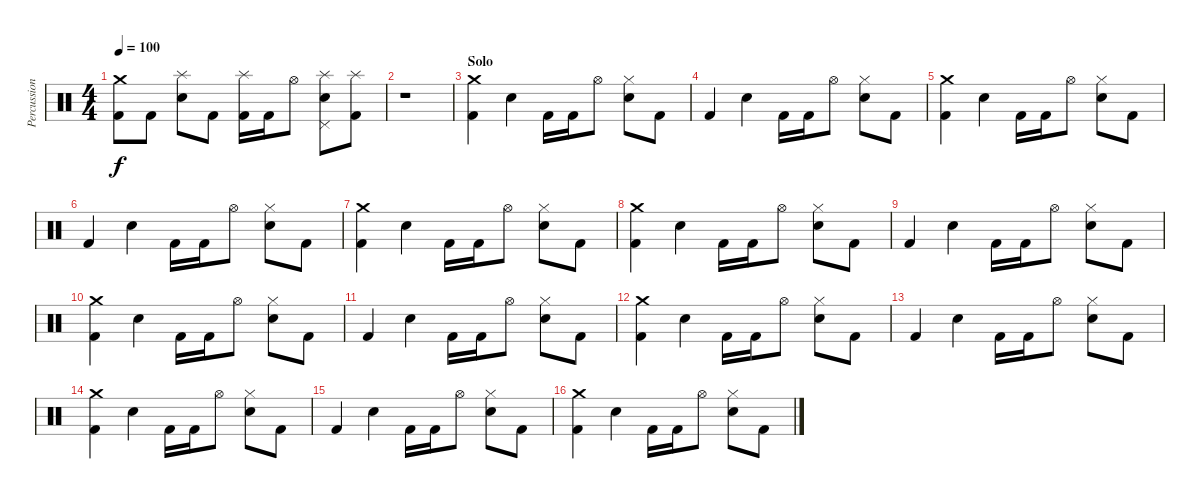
\track ("Percussions" "Percussion") {instrument percussion}
\staff {score}
\articulation defaults
\ts (4 4)
\tempo 100
\clef neutral
\ks c
("Crash medium (hit)" "Kick (hit) 2").8{dy f} "Kick (hit) 2".8 ("Splash (hit)" "Snare (hit) 2").8 "Kick (hit) 2".8 ("Splash (hit)" "Kick (hit) 2").16 "Kick (hit) 2".16 "Hi-Hat (open)".8 ("Splash (hit)" "Pedal Hi-Hat (hit)" "Snare (hit) 2").8 ("Splash (hit)" "Kick (hit) 2").8 |
r.1 |
\section ("" "Solo")
("Crash medium (hit)" "Kick (hit) 2").4 "Snare (hit) 2".4 "Kick (hit) 2".16 "Kick (hit) 2".16 "Hi-Hat (open)".8 ("Hi-Hat (closed)" "Snare (hit) 2").8 "Kick (hit) 2".8 |
"Kick (hit) 2".4 "Snare (hit) 2".4 "Kick (hit) 2".16 "Kick (hit) 2".16 "Hi-Hat (open)".8 ("Hi-Hat (closed)" "Snare (hit) 2").8 "Kick (hit) 2".8 |
("Crash medium (hit)" "Kick (hit) 2").4 "Snare (hit) 2".4 "Kick (hit) 2".16 "Kick (hit) 2".16 "Hi-Hat (open)".8 ("Hi-Hat (closed)" "Snare (hit) 2").8 "Kick (hit) 2".8 |
"Kick (hit) 2".4 "Snare (hit) 2".4 "Kick (hit) 2".16 "Kick (hit) 2".16 "Hi-Hat (open)".8 ("Hi-Hat (closed)" "Snare (hit) 2").8 "Kick (hit) 2".8 |
("Crash medium (hit)" "Kick (hit) 2").4 "Snare (hit) 2".4 "Kick (hit) 2".16 "Kick (hit) 2".16 "Hi-Hat (open)".8 ("Hi-Hat (closed)" "Snare (hit) 2").8 "Kick (hit) 2".8 |
("Crash medium (hit)" "Kick (hit) 2").4 "Snare (hit) 2".4 "Kick (hit) 2".16 "Kick (hit) 2".16 "Hi-Hat (open)".8 ("Hi-Hat (closed)" "Snare (hit) 2").8 "Kick (hit) 2".8 |
"Kick (hit) 2".4 "Snare (hit) 2".4 "Kick (hit) 2".16 "Kick (hit) 2".16 "Hi-Hat (open)".8 ("Hi-Hat (closed)" "Snare (hit) 2").8 "Kick (hit) 2".8 |
("Crash medium (hit)" "Kick (hit) 2").4 "Snare (hit) 2".4 "Kick (hit) 2".16 "Kick (hit) 2".16 "Hi-Hat (open)".8 ("Hi-Hat (closed)" "Snare (hit) 2").8 "Kick (hit) 2".8 |
"Kick (hit) 2".4 "Snare (hit) 2".4 "Kick (hit) 2".16 "Kick (hit) 2".16 "Hi-Hat (open)".8 ("Hi-Hat (closed)" "Snare (hit) 2").8 "Kick (hit) 2".8 |
("Crash medium (hit)" "Kick (hit) 2").4 "Snare (hit) 2".4 "Kick (hit) 2".16 "Kick (hit) 2".16 "Hi-Hat (open)".8 ("Hi-Hat (closed)" "Snare (hit) 2").8 "Kick (hit) 2".8 |
"Kick (hit) 2".4 "Snare (hit) 2".4 "Kick (hit) 2".16 "Kick (hit) 2".16 "Hi-Hat (open)".8 ("Hi-Hat (closed)" "Snare (hit) 2").8 "Kick (hit) 2".8 |
("Crash medium (hit)" "Kick (hit) 2").4 "Snare (hit) 2".4 "Kick (hit) 2".16 "Kick (hit) 2".16 "Hi-Hat (open)".8 ("Hi-Hat (closed)" "Snare (hit) 2").8 "Kick (hit) 2".8 |
"Kick (hit) 2".4 "Snare (hit) 2".4 "Kick (hit) 2".16 "Kick (hit) 2".16 "Hi-Hat (open)".8 ("Hi-Hat (closed)" "Snare (hit) 2").8 "Kick (hit) 2".8 |
("Crash medium (hit)" "Kick (hit) 2").4 "Snare (hit) 2".4 "Kick (hit) 2".16 "Kick (hit) 2".16 "Hi-Hat (open)".8 ("Hi-Hat (closed)" "Snare (hit) 2").8 "Kick (hit) 2".8
